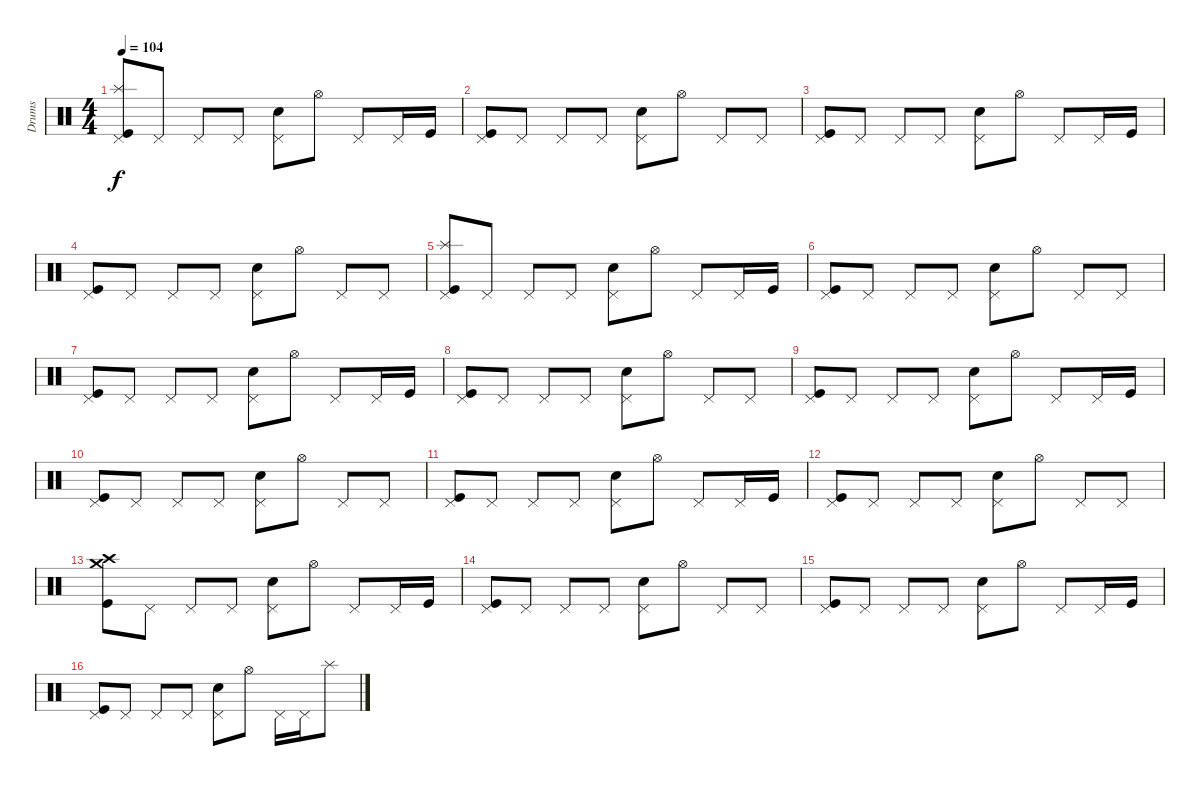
\track ("Drums" "Drums") {instrument percussion}
\staff {score}
\articulation defaults
\ts (4 4)
\tempo 104
\clef neutral
\ks c
("Pedal Hi-Hat (hit)" "Splash (hit)" "Kick (hit)").8{dy f} "Pedal Hi-Hat (hit)".8 "Pedal Hi-Hat (hit)".8 "Pedal Hi-Hat (hit)".8 ("Pedal Hi-Hat (hit)" "Snare (hit) 2").8 "Hi-Hat (open)".8 "Pedal Hi-Hat (hit)".8 "Pedal Hi-Hat (hit)".16 "Kick (hit)".16 |
("Pedal Hi-Hat (hit)" "Kick (hit)").8 "Pedal Hi-Hat (hit)".8 "Pedal Hi-Hat (hit)".8 "Pedal Hi-Hat (hit)".8 ("Pedal Hi-Hat (hit)" "Snare (hit) 2").8 "Hi-Hat (open)".8 "Pedal Hi-Hat (hit)".8 "Pedal Hi-Hat (hit)".8 |
("Pedal Hi-Hat (hit)" "Kick (hit)").8 "Pedal Hi-Hat (hit)".8 "Pedal Hi-Hat (hit)".8 "Pedal Hi-Hat (hit)".8 ("Pedal Hi-Hat (hit)" "Snare (hit) 2").8 "Hi-Hat (open)".8 "Pedal Hi-Hat (hit)".8 "Pedal Hi-Hat (hit)".16 "Kick (hit)".16 |
("Pedal Hi-Hat (hit)" "Kick (hit)").8 "Pedal Hi-Hat (hit)".8 "Pedal Hi-Hat (hit)".8 "Pedal Hi-Hat (hit)".8 ("Pedal Hi-Hat (hit)" "Snare (hit) 2").8 "Hi-Hat (open)".8 "Pedal Hi-Hat (hit)".8 "Pedal Hi-Hat (hit)".8 |
("Pedal Hi-Hat (hit)" "Splash (hit)" "Kick (hit)").8 "Pedal Hi-Hat (hit)".8 "Pedal Hi-Hat (hit)".8 "Pedal Hi-Hat (hit)".8 ("Pedal Hi-Hat (hit)" "Snare (hit) 2").8 "Hi-Hat (open)".8 "Pedal Hi-Hat (hit)".8 "Pedal Hi-Hat (hit)".16 "Kick (hit)".16 |
("Pedal Hi-Hat (hit)" "Kick (hit)").8 "Pedal Hi-Hat (hit)".8 "Pedal Hi-Hat (hit)".8 "Pedal Hi-Hat (hit)".8 ("Pedal Hi-Hat (hit)" "Snare (hit) 2").8 "Hi-Hat (open)".8 "Pedal Hi-Hat (hit)".8 "Pedal Hi-Hat (hit)".8 |
("Pedal Hi-Hat (hit)" "Kick (hit)").8 "Pedal Hi-Hat (hit)".8 "Pedal Hi-Hat (hit)".8 "Pedal Hi-Hat (hit)".8 ("Pedal Hi-Hat (hit)" "Snare (hit) 2").8 "Hi-Hat (open)".8 "Pedal Hi-Hat (hit)".8 "Pedal Hi-Hat (hit)".16 "Kick (hit)".16 |
("Pedal Hi-Hat (hit)" "Kick (hit)").8 "Pedal Hi-Hat (hit)".8 "Pedal Hi-Hat (hit)".8 "Pedal Hi-Hat (hit)".8 ("Pedal Hi-Hat (hit)" "Snare (hit) 2").8 "Hi-Hat (open)".8 "Pedal Hi-Hat (hit)".8 "Pedal Hi-Hat (hit)".8 |
("Pedal Hi-Hat (hit)" "Kick (hit)").8 "Pedal Hi-Hat (hit)".8 "Pedal Hi-Hat (hit)".8 "Pedal Hi-Hat (hit)".8 ("Pedal Hi-Hat (hit)" "Snare (hit) 2").8 "Hi-Hat (open)".8 "Pedal Hi-Hat (hit)".8 "Pedal Hi-Hat (hit)".16 "Kick (hit)".16 |
("Pedal Hi-Hat (hit)" "Kick (hit)").8 "Pedal Hi-Hat (hit)".8 "Pedal Hi-Hat (hit)".8 "Pedal Hi-Hat (hit)".8 ("Pedal Hi-Hat (hit)" "Snare (hit) 2").8 "Hi-Hat (open)".8 "Pedal Hi-Hat (hit)".8 "Pedal Hi-Hat (hit)".8 |
("Pedal Hi-Hat (hit)" "Kick (hit)").8 "Pedal Hi-Hat (hit)".8 "Pedal Hi-Hat (hit)".8 "Pedal Hi-Hat (hit)".8 ("Pedal Hi-Hat (hit)" "Snare (hit) 2").8 "Hi-Hat (open)".8 "Pedal Hi-Hat (hit)".8 "Pedal Hi-Hat (hit)".16 "Kick (hit)".16 |
("Pedal Hi-Hat (hit)" "Kick (hit)").8 "Pedal Hi-Hat (hit)".8 "Pedal Hi-Hat (hit)".8 "Pedal Hi-Hat (hit)".8 ("Pedal Hi-Hat (hit)" "Snare (hit) 2").8 "Hi-Hat (open)".8 "Pedal Hi-Hat (hit)".8 "Pedal Hi-Hat (hit)".8 |
("Crash high (hit)" "Crash medium (hit)" "Kick (hit)").8 "Pedal Hi-Hat (hit)".8 "Pedal Hi-Hat (hit)".8 "Pedal Hi-Hat (hit)".8 ("Pedal Hi-Hat (hit)" "Electric Snare (hit)").8 "Hi-Hat (open)".8 "Pedal Hi-Hat (hit)".8 "Pedal Hi-Hat (hit)".16 "Kick (hit)".16 |
("Pedal Hi-Hat (hit)" "Kick (hit)").8 "Pedal Hi-Hat (hit)".8 "Pedal Hi-Hat (hit)".8 "Pedal Hi-Hat (hit)".8 ("Pedal Hi-Hat (hit)" "Snare (hit) 2").8 "Hi-Hat (open)".8 "Pedal Hi-Hat (hit)".8 "Pedal Hi-Hat (hit)".8 |
("Pedal Hi-Hat (hit)" "Kick (hit)").8 "Pedal Hi-Hat (hit)".8 "Pedal Hi-Hat (hit)".8 "Pedal Hi-Hat (hit)".8 ("Pedal Hi-Hat (hit)" "Snare (hit) 2").8 "Hi-Hat (open)".8 "Pedal Hi-Hat (hit)".8 "Pedal Hi-Hat (hit)".16 "Kick (hit)".16 |
("Pedal Hi-Hat (hit)" "Kick (hit)").8 "Pedal Hi-Hat (hit)".8 "Pedal Hi-Hat (hit)".8 "Pedal Hi-Hat (hit)".8 ("Pedal Hi-Hat (hit)" "Snare (hit) 2").8 "Hi-Hat (open)".8 "Pedal Hi-Hat (hit)".16 "Pedal Hi-Hat (hit)".16 "Splash (hit)".8
